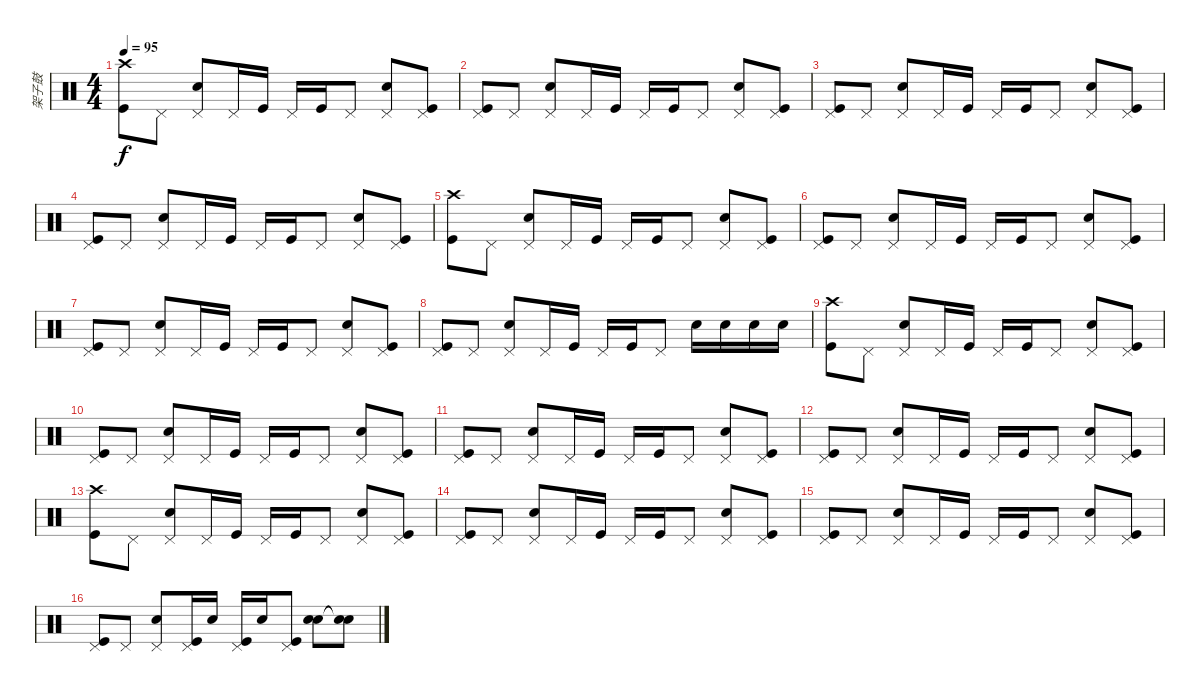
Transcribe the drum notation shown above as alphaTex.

\track ("架子鼓" "架子鼓") {instrument percussion}
\staff {score}
\articulation defaults
\ts (4 4)
\tempo 95
\clef neutral
\ks c
("Kick (hit)" "Crash high (hit)").8{dy f} "Pedal Hi-Hat (hit)".8 ("Snare (hit) 2" "Pedal Hi-Hat (hit)").8 "Pedal Hi-Hat (hit)".16 "Kick (hit)".16 "Pedal Hi-Hat (hit)".16 "Kick (hit)".16 "Pedal Hi-Hat (hit)".8 ("Snare (hit) 2" "Pedal Hi-Hat (hit)").8 ("Kick (hit)" "Pedal Hi-Hat (hit)").8 |
("Kick (hit)" "Pedal Hi-Hat (hit)").8 "Pedal Hi-Hat (hit)".8 ("Snare (hit) 2" "Pedal Hi-Hat (hit)").8 "Pedal Hi-Hat (hit)".16 "Kick (hit)".16 "Pedal Hi-Hat (hit)".16 "Kick (hit)".16 "Pedal Hi-Hat (hit)".8 ("Snare (hit) 2" "Pedal Hi-Hat (hit)").8 ("Kick (hit)" "Pedal Hi-Hat (hit)").8 |
("Kick (hit)" "Pedal Hi-Hat (hit)").8 "Pedal Hi-Hat (hit)".8 ("Snare (hit) 2" "Pedal Hi-Hat (hit)").8 "Pedal Hi-Hat (hit)".16 "Kick (hit)".16 "Pedal Hi-Hat (hit)".16 "Kick (hit)".16 "Pedal Hi-Hat (hit)".8 ("Snare (hit) 2" "Pedal Hi-Hat (hit)").8 ("Kick (hit)" "Pedal Hi-Hat (hit)").8 |
("Kick (hit)" "Pedal Hi-Hat (hit)").8 "Pedal Hi-Hat (hit)".8 ("Snare (hit) 2" "Pedal Hi-Hat (hit)").8 "Pedal Hi-Hat (hit)".16 "Kick (hit)".16 "Pedal Hi-Hat (hit)".16 "Kick (hit)".16 "Pedal Hi-Hat (hit)".8 ("Snare (hit) 2" "Pedal Hi-Hat (hit)").8 ("Kick (hit)" "Pedal Hi-Hat (hit)").8 |
("Kick (hit)" "Crash high (hit)").8 "Pedal Hi-Hat (hit)".8 ("Snare (hit) 2" "Pedal Hi-Hat (hit)").8 "Pedal Hi-Hat (hit)".16 "Kick (hit)".16 "Pedal Hi-Hat (hit)".16 "Kick (hit)".16 "Pedal Hi-Hat (hit)".8 ("Snare (hit) 2" "Pedal Hi-Hat (hit)").8 ("Kick (hit)" "Pedal Hi-Hat (hit)").8 |
("Kick (hit)" "Pedal Hi-Hat (hit)").8 "Pedal Hi-Hat (hit)".8 ("Snare (hit) 2" "Pedal Hi-Hat (hit)").8 "Pedal Hi-Hat (hit)".16 "Kick (hit)".16 "Pedal Hi-Hat (hit)".16 "Kick (hit)".16 "Pedal Hi-Hat (hit)".8 ("Snare (hit) 2" "Pedal Hi-Hat (hit)").8 ("Kick (hit)" "Pedal Hi-Hat (hit)").8 |
("Kick (hit)" "Pedal Hi-Hat (hit)").8 "Pedal Hi-Hat (hit)".8 ("Snare (hit) 2" "Pedal Hi-Hat (hit)").8 "Pedal Hi-Hat (hit)".16 "Kick (hit)".16 "Pedal Hi-Hat (hit)".16 "Kick (hit)".16 "Pedal Hi-Hat (hit)".8 ("Snare (hit) 2" "Pedal Hi-Hat (hit)").8 ("Kick (hit)" "Pedal Hi-Hat (hit)").8 |
("Kick (hit)" "Pedal Hi-Hat (hit)").8 "Pedal Hi-Hat (hit)".8 ("Snare (hit) 2" "Pedal Hi-Hat (hit)").8 "Pedal Hi-Hat (hit)".16 "Kick (hit)".16 "Pedal Hi-Hat (hit)".16 "Kick (hit)".16 "Pedal Hi-Hat (hit)".8 "Snare (hit) 2".16 "Snare (hit) 2".16 "Snare (hit) 2".16 "Snare (hit) 2".16 |
("Kick (hit)" "Crash high (hit)").8 "Pedal Hi-Hat (hit)".8 ("Snare (hit) 2" "Pedal Hi-Hat (hit)").8 "Pedal Hi-Hat (hit)".16 "Kick (hit)".16 "Pedal Hi-Hat (hit)".16 "Kick (hit)".16 "Pedal Hi-Hat (hit)".8 ("Snare (hit) 2" "Pedal Hi-Hat (hit)").8 ("Kick (hit)" "Pedal Hi-Hat (hit)").8 |
("Kick (hit)" "Pedal Hi-Hat (hit)").8 "Pedal Hi-Hat (hit)".8 ("Snare (hit) 2" "Pedal Hi-Hat (hit)").8 "Pedal Hi-Hat (hit)".16 "Kick (hit)".16 "Pedal Hi-Hat (hit)".16 "Kick (hit)".16 "Pedal Hi-Hat (hit)".8 ("Snare (hit) 2" "Pedal Hi-Hat (hit)").8 ("Kick (hit)" "Pedal Hi-Hat (hit)").8 |
("Kick (hit)" "Pedal Hi-Hat (hit)").8 "Pedal Hi-Hat (hit)".8 ("Snare (hit) 2" "Pedal Hi-Hat (hit)").8 "Pedal Hi-Hat (hit)".16 "Kick (hit)".16 "Pedal Hi-Hat (hit)".16 "Kick (hit)".16 "Pedal Hi-Hat (hit)".8 ("Snare (hit) 2" "Pedal Hi-Hat (hit)").8 ("Kick (hit)" "Pedal Hi-Hat (hit)").8 |
("Kick (hit)" "Pedal Hi-Hat (hit)").8 "Pedal Hi-Hat (hit)".8 ("Snare (hit) 2" "Pedal Hi-Hat (hit)").8 "Pedal Hi-Hat (hit)".16 "Kick (hit)".16 "Pedal Hi-Hat (hit)".16 "Kick (hit)".16 "Pedal Hi-Hat (hit)".8 ("Snare (hit) 2" "Pedal Hi-Hat (hit)").8 ("Kick (hit)" "Pedal Hi-Hat (hit)").8 |
("Kick (hit)" "Crash high (hit)").8 "Pedal Hi-Hat (hit)".8 ("Snare (hit) 2" "Pedal Hi-Hat (hit)").8 "Pedal Hi-Hat (hit)".16 "Kick (hit)".16 "Pedal Hi-Hat (hit)".16 "Kick (hit)".16 "Pedal Hi-Hat (hit)".8 ("Snare (hit) 2" "Pedal Hi-Hat (hit)").8 ("Kick (hit)" "Pedal Hi-Hat (hit)").8 |
("Kick (hit)" "Pedal Hi-Hat (hit)").8 "Pedal Hi-Hat (hit)".8 ("Snare (hit) 2" "Pedal Hi-Hat (hit)").8 "Pedal Hi-Hat (hit)".16 "Kick (hit)".16 "Pedal Hi-Hat (hit)".16 "Kick (hit)".16 "Pedal Hi-Hat (hit)".8 ("Snare (hit) 2" "Pedal Hi-Hat (hit)").8 ("Kick (hit)" "Pedal Hi-Hat (hit)").8 |
("Kick (hit)" "Pedal Hi-Hat (hit)").8 "Pedal Hi-Hat (hit)".8 ("Snare (hit) 2" "Pedal Hi-Hat (hit)").8 "Pedal Hi-Hat (hit)".16 "Kick (hit)".16 "Pedal Hi-Hat (hit)".16 "Kick (hit)".16 "Pedal Hi-Hat (hit)".8 ("Snare (hit) 2" "Pedal Hi-Hat (hit)").8 ("Kick (hit)" "Pedal Hi-Hat (hit)").8 |
("Kick (hit)" "Pedal Hi-Hat (hit)").8 "Pedal Hi-Hat (hit)".8 ("Snare (hit) 2" "Pedal Hi-Hat (hit)").8 ("Kick (hit)" "Pedal Hi-Hat (hit)").16 "Snare (hit) 2".16 ("Kick (hit)" "Pedal Hi-Hat (hit)").16 "Snare (hit) 2".16 ("Kick (hit)" "Pedal Hi-Hat (hit)").8 ("Snare (hit) 2" "Snare (hit) 2").8 ("Snare (hit)"{t} "Snare (hit)"{t}).8
